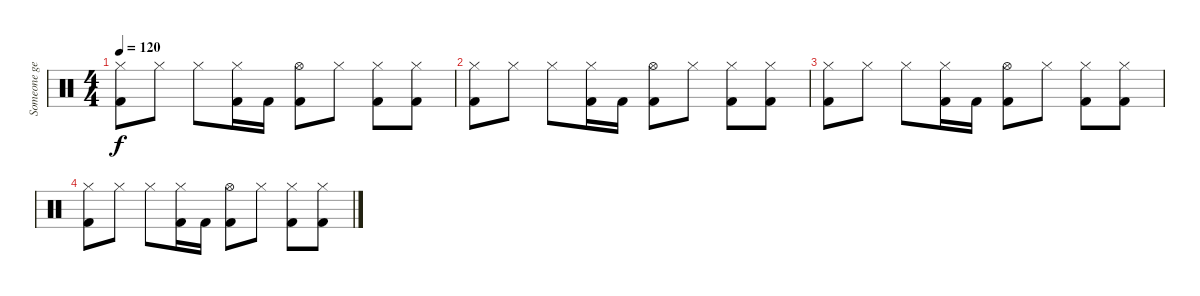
\track ("Someone get me Neil Peart" "Someone ge") {instrument percussion}
\staff {score}
\articulation defaults
\ts (4 4)
\tempo 120
\clef neutral
\ks c
("Hi-Hat (closed)" "Kick (hit) 2").8{dy f} "Hi-Hat (closed)".8 "Hi-Hat (closed)".8 ("Hi-Hat (closed)" "Kick (hit) 2").16 "Kick (hit) 2".16 ("Hi-Hat (open)" "Kick (hit) 2").8 "Hi-Hat (closed)".8 ("Hi-Hat (closed)" "Kick (hit) 2").8 ("Hi-Hat (closed)" "Kick (hit) 2").8 |
("Hi-Hat (closed)" "Kick (hit) 2").8 "Hi-Hat (closed)".8 "Hi-Hat (closed)".8 ("Hi-Hat (closed)" "Kick (hit) 2").16 "Kick (hit) 2".16 ("Hi-Hat (open)" "Kick (hit) 2").8 "Hi-Hat (closed)".8 ("Hi-Hat (closed)" "Kick (hit) 2").8 ("Hi-Hat (closed)" "Kick (hit) 2").8 |
("Hi-Hat (closed)" "Kick (hit) 2").8 "Hi-Hat (closed)".8 "Hi-Hat (closed)".8 ("Hi-Hat (closed)" "Kick (hit) 2").16 "Kick (hit) 2".16 ("Hi-Hat (open)" "Kick (hit) 2").8 "Hi-Hat (closed)".8 ("Hi-Hat (closed)" "Kick (hit) 2").8 ("Hi-Hat (closed)" "Kick (hit) 2").8 |
("Hi-Hat (closed)" "Kick (hit) 2").8 "Hi-Hat (closed)".8 "Hi-Hat (closed)".8 ("Hi-Hat (closed)" "Kick (hit) 2").16 "Kick (hit) 2".16 ("Hi-Hat (open)" "Kick (hit) 2").8 "Hi-Hat (closed)".8 ("Hi-Hat (closed)" "Kick (hit) 2").8 ("Hi-Hat (closed)" "Kick (hit) 2").8
